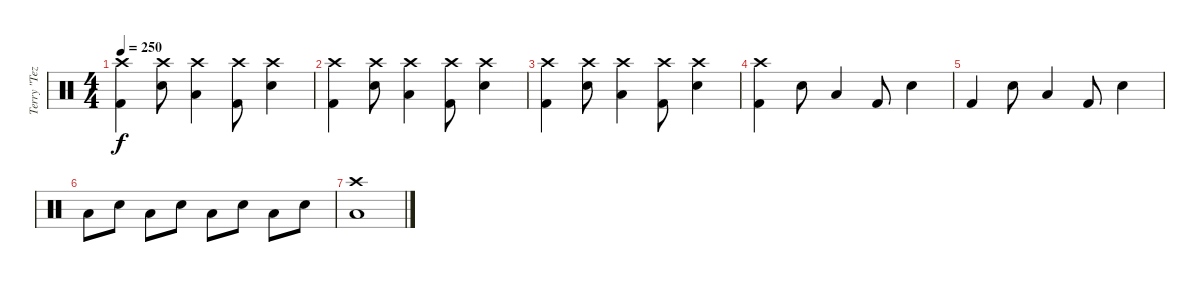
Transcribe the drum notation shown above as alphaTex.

\track ("Terry \"Tezz\" Roberts" "Terry \"Tez") {instrument percussion}
\staff {score}
\articulation defaults
\ts (4 4)
\tempo 250
\clef neutral
\ks c
("Kick (hit) 2" "Crash high (hit)").4{dy f} ("Snare (hit) 2" "Crash high (hit)").8 ("Low Tom (hit)" "Crash high (hit)").4 ("Kick (hit) 2" "Crash high (hit)").8 ("Snare (hit) 2" "Crash high (hit)").4 |
("Kick (hit) 2" "Crash high (hit)").4 ("Snare (hit) 2" "Crash high (hit)").8 ("Low Tom (hit)" "Crash high (hit)").4 ("Kick (hit) 2" "Crash high (hit)").8 ("Snare (hit) 2" "Crash high (hit)").4 |
("Kick (hit) 2" "Crash high (hit)").4 ("Snare (hit) 2" "Crash high (hit)").8 ("Low Tom (hit)" "Crash high (hit)").4 ("Kick (hit) 2" "Crash high (hit)").8 ("Snare (hit) 2" "Crash high (hit)").4 |
("Kick (hit) 2" "Crash high (hit)").4 "Snare (hit) 2".8 "Low Tom (hit)".4 "Kick (hit) 2".8 "Snare (hit) 2".4 |
"Kick (hit) 2".4 "Snare (hit) 2".8 "Low Tom (hit)".4 "Kick (hit) 2".8 "Snare (hit) 2".4 |
"Low Tom (hit)".8 "Snare (hit) 2".8 "Low Tom (hit)".8 "Snare (hit) 2".8 "Low Tom (hit)".8 "Snare (hit) 2".8 "Low Tom (hit)".8 "Snare (hit) 2".8 |
("Crash high (hit)" "Low Tom (hit)").1
